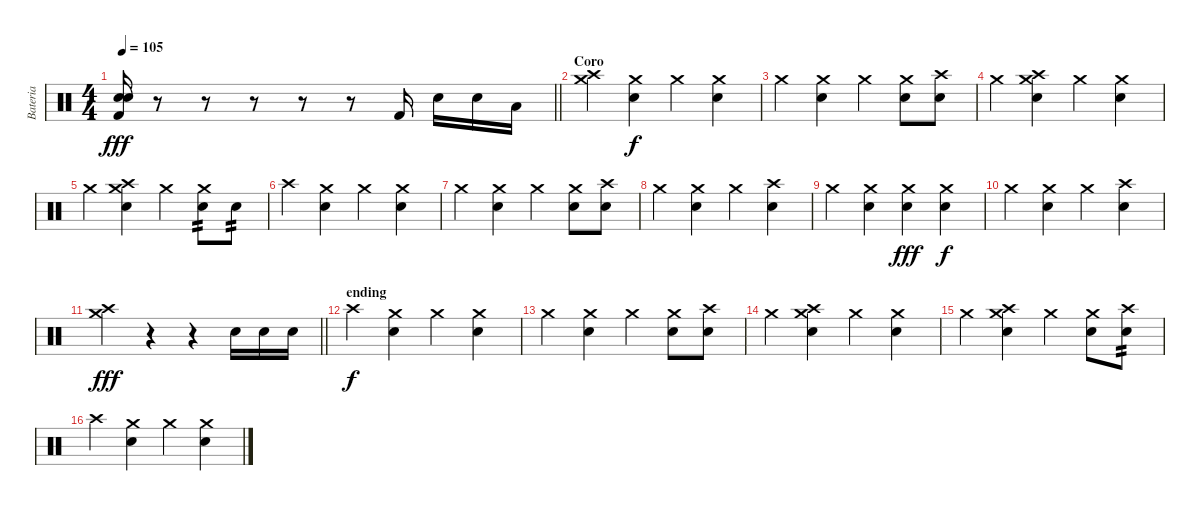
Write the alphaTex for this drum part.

\track ("Bateria" "Bateria") {instrument percussion}
\staff {score}
\articulation defaults
\ts (4 4)
\tempo 105
\clef neutral
\barLineRight lightlight
\ks c
("Electric Snare (hit)" "Snare (hit) 2" "Kick (hit) 2").16{dy fff} r.8 r.8 r.8 r.8 r.8 "Kick (hit) 2".16 "Snare (hit) 2".16 "Snare (hit) 2".16 "Low Tom (hit)".16 |
\section ("" "Coro")
("Crash high (hit)" "Crash medium (hit)").4 ("Crash medium (hit)" "Snare (hit) 2").4{dy f} "Crash medium (hit)".4 ("Crash medium (hit)" "Snare (hit) 2").4 |
"Crash medium (hit)".4 ("Crash medium (hit)" "Snare (hit) 2").4 "Crash medium (hit)".4 ("Crash medium (hit)" "Snare (hit) 2").8 ("Crash high (hit)" "Electric Snare (hit)").8 |
"Crash medium (hit)".4 ("Crash high (hit)" "Crash medium (hit)" "Snare (hit) 2").4 "Crash medium (hit)".4 ("Crash medium (hit)" "Snare (hit) 2").4 |
"Crash medium (hit)".4 ("Crash high (hit)" "Crash medium (hit)" "Snare (hit) 2").4 "Crash medium (hit)".4 ("Crash medium (hit)" "Electric Snare (hit)").8{tp 2} "Snare (hit) 2".8{tp 2} |
"Crash high (hit)".4 ("Crash medium (hit)" "Snare (hit) 2").4 "Crash medium (hit)".4 ("Crash medium (hit)" "Snare (hit) 2").4 |
"Crash medium (hit)".4 ("Crash medium (hit)" "Snare (hit) 2").4 "Crash medium (hit)".4 ("Crash medium (hit)" "Snare (hit) 2").8 ("Crash high (hit)" "Electric Snare (hit)").8 |
"Crash medium (hit)".4 ("Crash medium (hit)" "Snare (hit) 2").4 "Crash medium (hit)".4 ("Crash high (hit)" "Snare (hit) 2").4 |
"Crash medium (hit)".4 ("Crash medium (hit)" "Snare (hit) 2").4 ("Crash medium (hit)" "Snare (hit) 2").4{dy fff} ("Crash medium (hit)" "Snare (hit) 2").4{dy f} |
"Crash medium (hit)".4 ("Crash medium (hit)" "Snare (hit) 2").4 "Crash medium (hit)".4 ("Crash high (hit)" "Snare (hit) 2").4 |
\barLineRight lightlight
("Crash high (hit)" "Crash medium (hit)").4{dy fff} r.4 r.4 "Snare (hit) 2".16 "Snare (hit) 2".16 "Snare (hit) 2".16 |
\section ("" "ending")
"Crash high (hit)".4{dy f} ("Crash medium (hit)" "Snare (hit) 2").4 "Crash medium (hit)".4 ("Crash medium (hit)" "Snare (hit) 2").4 |
"Crash medium (hit)".4 ("Crash medium (hit)" "Snare (hit) 2").4 "Crash medium (hit)".4 ("Crash medium (hit)" "Snare (hit) 2").8 ("Crash high (hit)" "Electric Snare (hit)").8 |
"Crash medium (hit)".4 ("Crash high (hit)" "Crash medium (hit)" "Snare (hit) 2").4 "Crash medium (hit)".4 ("Crash medium (hit)" "Snare (hit) 2").4 |
"Crash medium (hit)".4 ("Crash high (hit)" "Crash medium (hit)" "Snare (hit) 2").4 "Crash medium (hit)".4 ("Crash medium (hit)" "Electric Snare (hit)").8 ("Crash high (hit)" "Snare (hit) 2").8{tp 2} |
"Crash high (hit)".4 ("Crash medium (hit)" "Snare (hit) 2").4 "Crash medium (hit)".4 ("Crash medium (hit)" "Electric Snare (hit)").4
